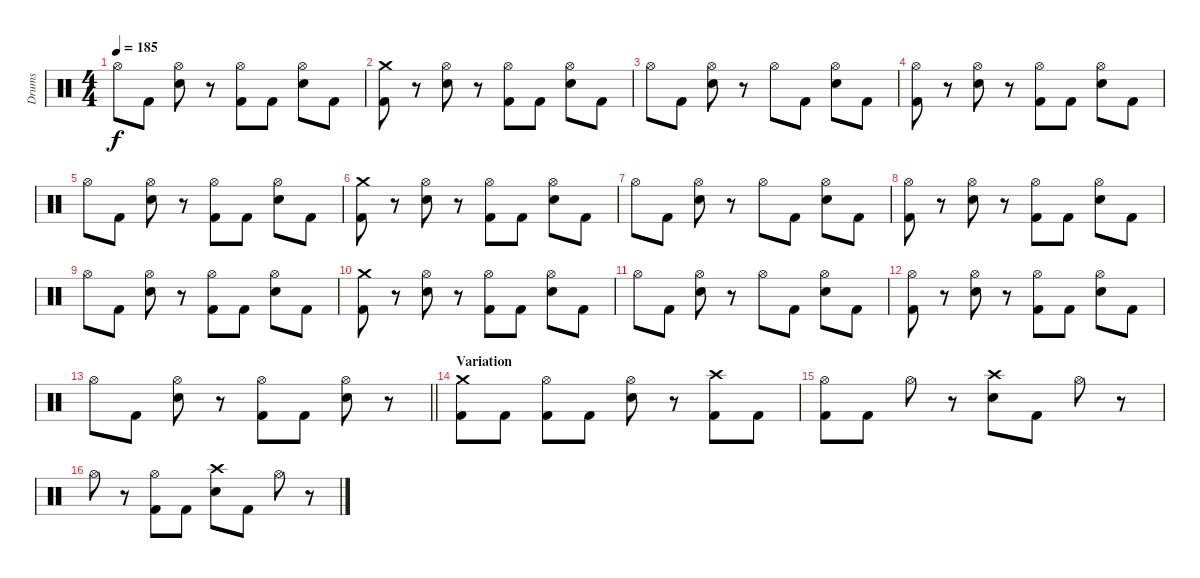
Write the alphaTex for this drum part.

\track ("Drums" "Drums") {instrument percussion}
\staff {score}
\articulation defaults
\ts (4 4)
\tempo 185
\clef neutral
\ks c "Hi-Hat (open)".8{dy f} "Kick (hit) 2".8
("Hi-Hat (open)" "Electric Snare (hit)").8 r.8 ("Hi-Hat (open)" "Kick (hit) 2").8 "Kick (hit) 2".8 ("Hi-Hat (open)" "Electric Snare (hit)").8 "Kick (hit) 2".8 |
("Crash medium (hit)" "Kick (hit) 2").8 r.8 ("Hi-Hat (open)" "Electric Snare (hit)").8 r.8 ("Hi-Hat (open)" "Kick (hit) 2").8 "Kick (hit) 2".8 ("Hi-Hat (open)" "Electric Snare (hit)").8 "Kick (hit) 2".8 |
"Hi-Hat (open)".8 "Kick (hit) 2".8 ("Hi-Hat (open)" "Electric Snare (hit)").8 r.8 "Hi-Hat (open)".8 "Kick (hit) 2".8 ("Hi-Hat (open)" "Electric Snare (hit)").8 "Kick (hit) 2".8 |
("Hi-Hat (open)" "Kick (hit) 2").8 r.8 ("Hi-Hat (open)" "Electric Snare (hit)").8 r.8 ("Hi-Hat (open)" "Kick (hit) 2").8 "Kick (hit) 2".8 ("Hi-Hat (open)" "Electric Snare (hit)").8 "Kick (hit) 2".8 |
"Hi-Hat (open)".8 "Kick (hit) 2".8 ("Hi-Hat (open)" "Electric Snare (hit)").8 r.8 ("Hi-Hat (open)" "Kick (hit) 2").8 "Kick (hit) 2".8 ("Hi-Hat (open)" "Electric Snare (hit)").8 "Kick (hit) 2".8 |
("Crash medium (hit)" "Kick (hit) 2").8 r.8 ("Hi-Hat (open)" "Electric Snare (hit)").8 r.8 ("Hi-Hat (open)" "Kick (hit) 2").8 "Kick (hit) 2".8 ("Hi-Hat (open)" "Electric Snare (hit)").8 "Kick (hit) 2".8 |
"Hi-Hat (open)".8 "Kick (hit) 2".8 ("Hi-Hat (open)" "Electric Snare (hit)").8 r.8 "Hi-Hat (open)".8 "Kick (hit) 2".8 ("Hi-Hat (open)" "Electric Snare (hit)").8 "Kick (hit) 2".8 |
("Hi-Hat (open)" "Kick (hit) 2").8 r.8 ("Hi-Hat (open)" "Electric Snare (hit)").8 r.8 ("Hi-Hat (open)" "Kick (hit) 2").8 "Kick (hit) 2".8 ("Hi-Hat (open)" "Electric Snare (hit)").8 "Kick (hit) 2".8 |
"Hi-Hat (open)".8 "Kick (hit) 2".8 ("Hi-Hat (open)" "Electric Snare (hit)").8 r.8 ("Hi-Hat (open)" "Kick (hit) 2").8 "Kick (hit) 2".8 ("Hi-Hat (open)" "Electric Snare (hit)").8 "Kick (hit) 2".8 |
("Crash medium (hit)" "Kick (hit) 2").8 r.8 ("Hi-Hat (open)" "Electric Snare (hit)").8 r.8 ("Hi-Hat (open)" "Kick (hit) 2").8 "Kick (hit) 2".8 ("Hi-Hat (open)" "Electric Snare (hit)").8 "Kick (hit) 2".8 |
"Hi-Hat (open)".8 "Kick (hit) 2".8 ("Hi-Hat (open)" "Electric Snare (hit)").8 r.8 "Hi-Hat (open)".8 "Kick (hit) 2".8 ("Hi-Hat (open)" "Electric Snare (hit)").8 "Kick (hit) 2".8 |
("Hi-Hat (open)" "Kick (hit) 2").8 r.8 ("Hi-Hat (open)" "Electric Snare (hit)").8 r.8 ("Hi-Hat (open)" "Kick (hit) 2").8 "Kick (hit) 2".8 ("Hi-Hat (open)" "Electric Snare (hit)").8 "Kick (hit) 2".8 |
\barLineRight lightlight "Hi-Hat (open)".8 "Kick (hit) 2".8
("Hi-Hat (open)" "Electric Snare (hit)").8 r.8 ("Hi-Hat (open)" "Kick (hit) 2").8 "Kick (hit) 2".8 ("Hi-Hat (open)" "Electric Snare (hit)").8 r.8 |
\section ("" "Variation")
("Crash medium (hit)" "Kick (hit) 2").8 "Kick (hit) 2".8 ("Hi-Hat (open)" "Kick (hit) 2").8 "Kick (hit) 2".8 ("Hi-Hat (open)" "Electric Snare (hit)").8 r.8 ("Crash high (hit)" "Kick (hit) 2").8 "Kick (hit) 2".8 |
("Hi-Hat (open)" "Kick (hit) 2").8 "Kick (hit) 2".8 "Hi-Hat (open)".8 r.8 ("Crash high (hit)" "Electric Snare (hit)").8 "Kick (hit) 2".8 "Hi-Hat (open)".8 r.8 |
"Hi-Hat (open)".8 r.8 ("Hi-Hat (open)" "Kick (hit) 2").8 "Kick (hit) 2".8 ("Crash high (hit)" "Electric Snare (hit)").8 "Kick (hit) 2".8 "Hi-Hat (open)".8 r.8
